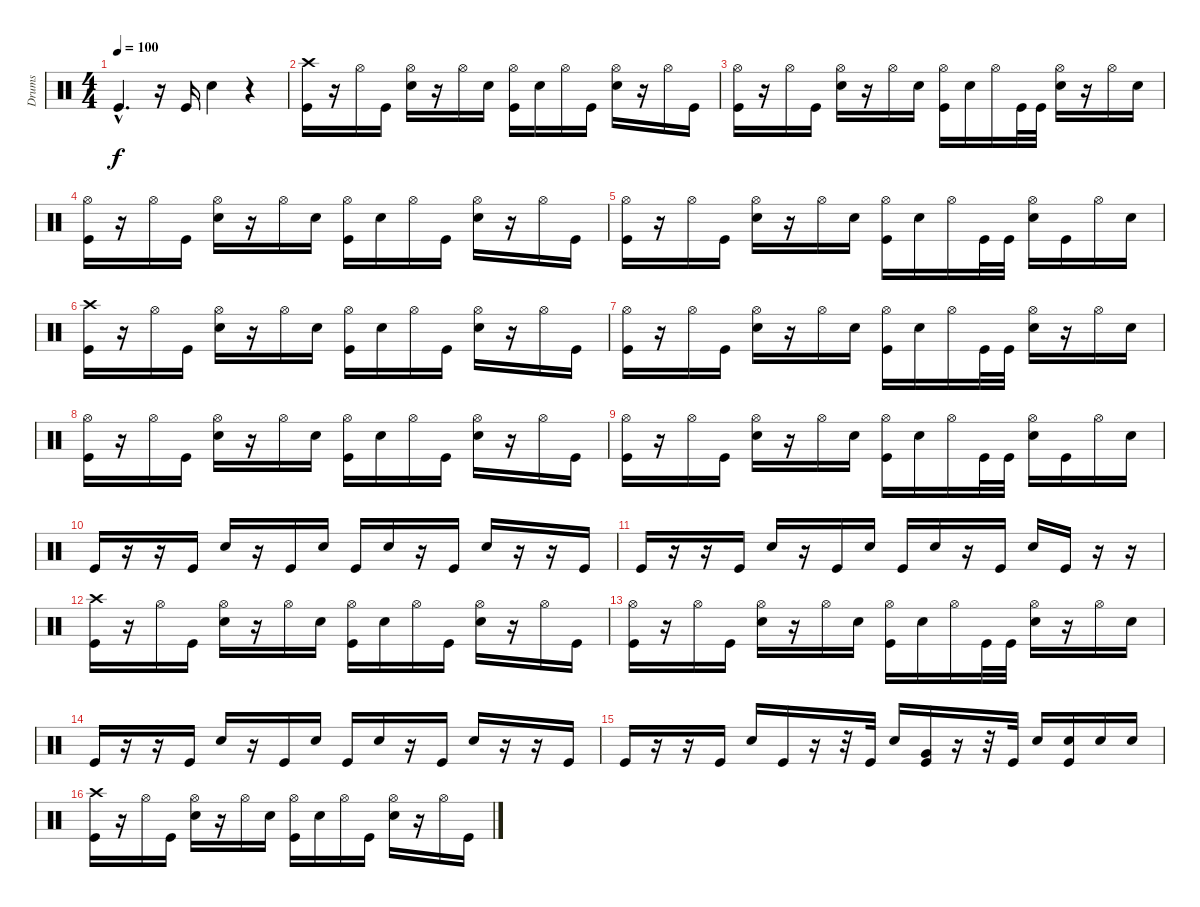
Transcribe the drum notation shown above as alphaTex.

\track ("Drums" "Drums") {instrument percussion}
\staff {score}
\articulation defaults
\ts (4 4)
\tempo 100
\clef neutral
\ks c "Kick (hit)"{hac}.4{d dy f}
r.16 "Kick (hit)".16 "Electric Snare (hit)".4 r.4 |
("Crash high (hit)" "Kick (hit)").16 r.16 "Hi-Hat (open)".16 "Kick (hit)".16 ("Hi-Hat (open)" "Electric Snare (hit)").16 r.16 "Hi-Hat (open)".16 "Electric Snare (hit)".16 ("Hi-Hat (open)" "Kick (hit)").16 "Electric Snare (hit)".16 "Hi-Hat (open)".16 "Kick (hit)".16 ("Hi-Hat (open)" "Electric Snare (hit)").16 r.16 "Hi-Hat (open)".16 "Kick (hit)".16 |
("Hi-Hat (open)" "Kick (hit)").16 r.16 "Hi-Hat (open)".16 "Kick (hit)".16 ("Hi-Hat (open)" "Electric Snare (hit)").16 r.16 "Hi-Hat (open)".16 "Electric Snare (hit)".16 ("Hi-Hat (open)" "Kick (hit)").16 "Electric Snare (hit)".16 "Hi-Hat (open)".16 "Kick (hit)".32 "Kick (hit)".32 ("Hi-Hat (open)" "Electric Snare (hit)").16 r.16 "Hi-Hat (open)".16 "Electric Snare (hit)".16 |
("Hi-Hat (open)" "Kick (hit)").16 r.16 "Hi-Hat (open)".16 "Kick (hit)".16 ("Hi-Hat (open)" "Electric Snare (hit)").16 r.16 "Hi-Hat (open)".16 "Electric Snare (hit)".16 ("Hi-Hat (open)" "Kick (hit)").16 "Electric Snare (hit)".16 "Hi-Hat (open)".16 "Kick (hit)".16 ("Hi-Hat (open)" "Electric Snare (hit)").16 r.16 "Hi-Hat (open)".16 "Kick (hit)".16 |
("Hi-Hat (open)" "Kick (hit)").16 r.16 "Hi-Hat (open)".16 "Kick (hit)".16 ("Hi-Hat (open)" "Electric Snare (hit)").16 r.16 "Hi-Hat (open)".16 "Electric Snare (hit)".16 ("Hi-Hat (open)" "Kick (hit)").16 "Electric Snare (hit)".16 "Hi-Hat (open)".16 "Kick (hit)".32 "Kick (hit)".32 ("Hi-Hat (open)" "Electric Snare (hit)").16 "Kick (hit)".16 "Hi-Hat (open)".16 "Electric Snare (hit)".16 |
("Crash high (hit)" "Kick (hit)").16 r.16 "Hi-Hat (open)".16 "Kick (hit)".16 ("Hi-Hat (open)" "Electric Snare (hit)").16 r.16 "Hi-Hat (open)".16 "Electric Snare (hit)".16 ("Hi-Hat (open)" "Kick (hit)").16 "Electric Snare (hit)".16 "Hi-Hat (open)".16 "Kick (hit)".16 ("Hi-Hat (open)" "Electric Snare (hit)").16 r.16 "Hi-Hat (open)".16 "Kick (hit)".16 |
("Hi-Hat (open)" "Kick (hit)").16 r.16 "Hi-Hat (open)".16 "Kick (hit)".16 ("Hi-Hat (open)" "Electric Snare (hit)").16 r.16 "Hi-Hat (open)".16 "Electric Snare (hit)".16 ("Hi-Hat (open)" "Kick (hit)").16 "Electric Snare (hit)".16 "Hi-Hat (open)".16 "Kick (hit)".32 "Kick (hit)".32 ("Hi-Hat (open)" "Electric Snare (hit)").16 r.16 "Hi-Hat (open)".16 "Electric Snare (hit)".16 |
("Hi-Hat (open)" "Kick (hit)").16 r.16 "Hi-Hat (open)".16 "Kick (hit)".16 ("Hi-Hat (open)" "Electric Snare (hit)").16 r.16 "Hi-Hat (open)".16 "Electric Snare (hit)".16 ("Hi-Hat (open)" "Kick (hit)").16 "Electric Snare (hit)".16 "Hi-Hat (open)".16 "Kick (hit)".16 ("Hi-Hat (open)" "Electric Snare (hit)").16 r.16 "Hi-Hat (open)".16 "Kick (hit)".16 |
("Hi-Hat (open)" "Kick (hit)").16 r.16 "Hi-Hat (open)".16 "Kick (hit)".16 ("Hi-Hat (open)" "Electric Snare (hit)").16 r.16 "Hi-Hat (open)".16 "Electric Snare (hit)".16 ("Hi-Hat (open)" "Kick (hit)").16 "Electric Snare (hit)".16 "Hi-Hat (open)".16 "Kick (hit)".32 "Kick (hit)".32 ("Hi-Hat (open)" "Electric Snare (hit)").16 "Kick (hit)".16 "Hi-Hat (open)".16 "Electric Snare (hit)".16 |
"Kick (hit)".16 r.16 r.16 "Kick (hit)".16 "Electric Snare (hit)".16 r.16 "Kick (hit)".16 "Electric Snare (hit)".16 "Kick (hit)".16 "Electric Snare (hit)".16 r.16 "Kick (hit)".16 "Electric Snare (hit)".16 r.16 r.16 "Kick (hit)".16 |
"Kick (hit)".16 r.16 r.16 "Kick (hit)".16 "Electric Snare (hit)".16 r.16 "Kick (hit)".16 "Electric Snare (hit)".16 "Kick (hit)".16 "Electric Snare (hit)".16 r.16 "Kick (hit)".16 "Electric Snare (hit)".16 "Kick (hit)".16 r.16 r.16 |
("Crash high (hit)" "Kick (hit)").16 r.16 "Hi-Hat (open)".16 "Kick (hit)".16 ("Hi-Hat (open)" "Electric Snare (hit)").16 r.16 "Hi-Hat (open)".16 "Electric Snare (hit)".16 ("Hi-Hat (open)" "Kick (hit)").16 "Electric Snare (hit)".16 "Hi-Hat (open)".16 "Kick (hit)".16 ("Hi-Hat (open)" "Electric Snare (hit)").16 r.16 "Hi-Hat (open)".16 "Kick (hit)".16 |
("Hi-Hat (open)" "Kick (hit)").16 r.16 "Hi-Hat (open)".16 "Kick (hit)".16 ("Hi-Hat (open)" "Electric Snare (hit)").16 r.16 "Hi-Hat (open)".16 "Electric Snare (hit)".16 ("Hi-Hat (open)" "Kick (hit)").16 "Electric Snare (hit)".16 "Hi-Hat (open)".16 "Kick (hit)".32 "Kick (hit)".32 ("Hi-Hat (open)" "Electric Snare (hit)").16 r.16 "Hi-Hat (open)".16 "Electric Snare (hit)".16 |
"Kick (hit)".16 r.16 r.16 "Kick (hit)".16 "Electric Snare (hit)".16 r.16 "Kick (hit)".16 "Electric Snare (hit)".16 "Kick (hit)".16 "Electric Snare (hit)".16 r.16 "Kick (hit)".16 "Electric Snare (hit)".16 r.16 r.16 "Kick (hit)".16 |
"Kick (hit)".16 r.16 r.16 "Kick (hit)".16 "Electric Snare (hit)".16 "Kick (hit)".16 r.16 r.32 "Kick (hit)".32 "Electric Snare (hit)".16 ("Very Low Tom (hit)" "Kick (hit)").16 r.16 r.32 "Kick (hit)".32 "Electric Snare (hit)".16 ("Electric Snare (hit)" "Kick (hit)").16 "Electric Snare (hit)".16 "Electric Snare (hit)".16 |
("Crash high (hit)" "Kick (hit)").16 r.16 "Hi-Hat (open)".16 "Kick (hit)".16 ("Hi-Hat (open)" "Electric Snare (hit)").16 r.16 "Hi-Hat (open)".16 "Electric Snare (hit)".16 ("Hi-Hat (open)" "Kick (hit)").16 "Electric Snare (hit)".16 "Hi-Hat (open)".16 "Kick (hit)".16 ("Hi-Hat (open)" "Electric Snare (hit)").16 r.16 "Hi-Hat (open)".16 "Kick (hit)".16
